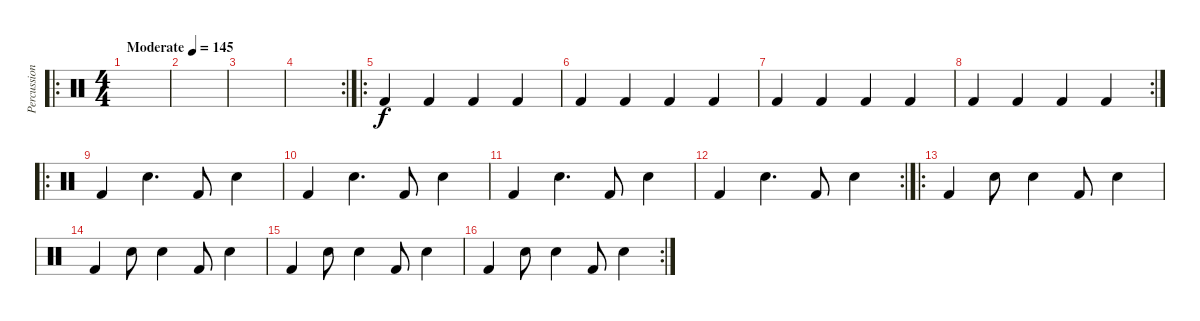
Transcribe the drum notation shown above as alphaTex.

\track ("Percussions" "Percussion") {instrument percussion}
\staff {score}
\articulation defaults
\ro
\ts (4 4)
\tempo (145 "Moderate")
\clef neutral
\ks c
|
|
|
\rc 2
|
\ro "Kick (hit) 2".4 "Kick (hit) 2".4 "Kick (hit) 2".4 "Kick (hit) 2".4
|
"Kick (hit) 2".4 "Kick (hit) 2".4 "Kick (hit) 2".4 "Kick (hit) 2".4 |
"Kick (hit) 2".4 "Kick (hit) 2".4 "Kick (hit) 2".4 "Kick (hit) 2".4 |
\rc 2 "Kick (hit) 2".4 "Kick (hit) 2".4 "Kick (hit) 2".4 "Kick (hit) 2".4
|
\ro "Kick (hit) 2".4 "Snare (hit) 2".4{d} "Kick (hit) 2".8 "Snare (hit) 2".4
|
"Kick (hit) 2".4 "Snare (hit) 2".4{d} "Kick (hit) 2".8 "Snare (hit) 2".4 |
"Kick (hit) 2".4 "Snare (hit) 2".4{d} "Kick (hit) 2".8 "Snare (hit) 2".4 |
\rc 2 "Kick (hit) 2".4 "Snare (hit) 2".4{d} "Kick (hit) 2".8 "Snare (hit) 2".4
|
\ro "Kick (hit) 2".4 "Snare (hit) 2".8 "Snare (hit) 2".4 "Kick (hit) 2".8 "Snare (hit) 2".4
|
"Kick (hit) 2".4 "Snare (hit) 2".8 "Snare (hit) 2".4 "Kick (hit) 2".8 "Snare (hit) 2".4 |
"Kick (hit) 2".4 "Snare (hit) 2".8 "Snare (hit) 2".4 "Kick (hit) 2".8 "Snare (hit) 2".4 |
\rc 2 "Kick (hit) 2".4 "Snare (hit) 2".8 "Snare (hit) 2".4 "Kick (hit) 2".8 "Snare (hit) 2".4
